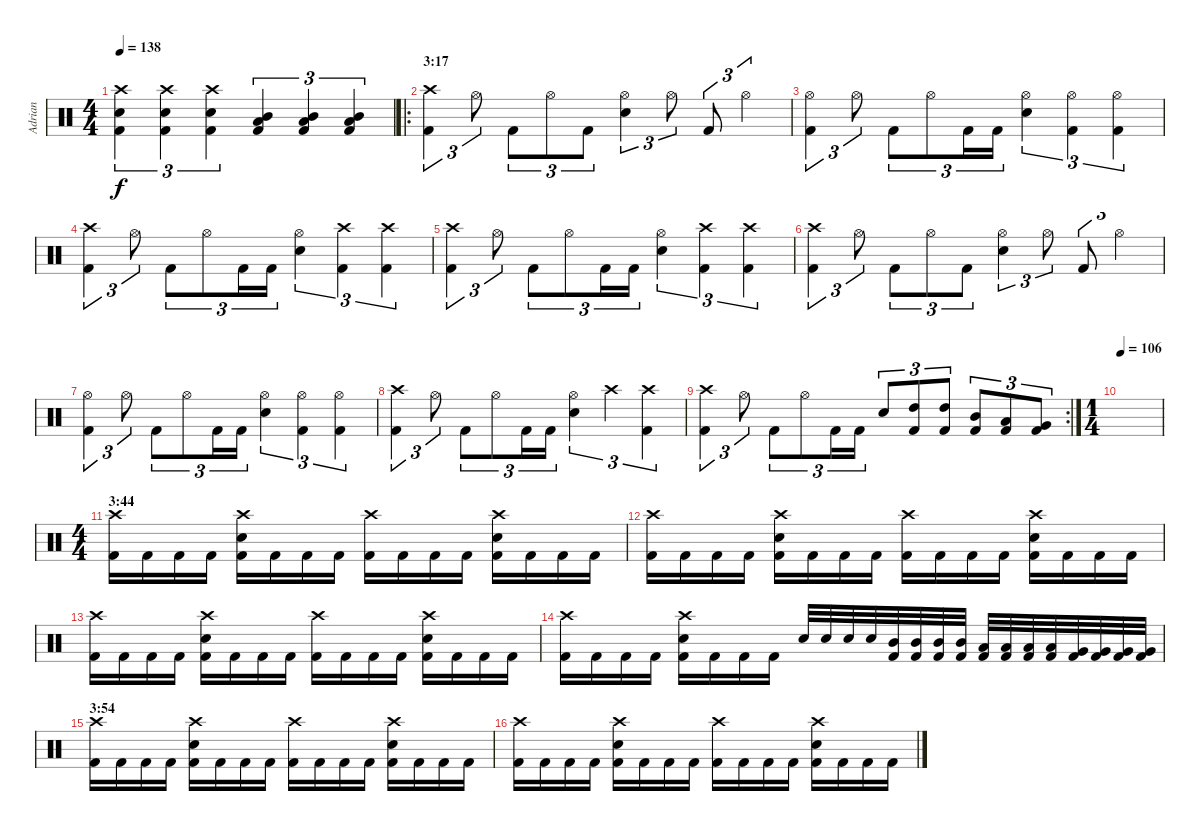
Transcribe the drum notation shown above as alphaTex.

\track ("Adrian" "Adrian") {instrument percussion}
\staff {score}
\articulation defaults
\ts (4 4)
\tempo 138
\clef neutral
\ks c
("Kick (hit) 2" "Snare (hit) 2" "Crash high (hit)").4{tu (3 2) dy f} ("Kick (hit) 2" "Snare (hit) 2" "Crash high (hit)").4{tu (3 2)} ("Kick (hit) 2" "Snare (hit) 2" "Crash high (hit)").4{tu (3 2)} ("Kick (hit) 2" "Low Tom (hit)" "Mid Tom (hit)").4{tu (3 2)} ("Kick (hit) 2" "Low Tom (hit)" "Mid Tom (hit)").4{tu (3 2)} ("Kick (hit) 2" "Low Tom (hit)" "Mid Tom (hit)").4{tu (3 2)} |
\ro
\section ("" "3:17")
("Kick (hit) 2" "Crash high (hit)").4{tu (3 2)} "Hi-Hat (open)".8{tu (3 2)} "Kick (hit) 2".8{tu (3 2)} "Hi-Hat (open)".8{tu (3 2)} "Kick (hit) 2".8{tu (3 2)} ("Snare (hit) 2" "Hi-Hat (open)").4{tu (3 2)} "Hi-Hat (open)".8{tu (3 2)} "Kick (hit) 2".8{tu (3 2)} "Hi-Hat (open)".4{tu (3 2)} |
("Kick (hit) 2" "Hi-Hat (open)").4{tu (3 2)} "Hi-Hat (open)".8{tu (3 2)} "Kick (hit) 2".8{tu (3 2)} "Hi-Hat (open)".8{tu (3 2)} "Kick (hit) 2".16{tu (3 2)} "Kick (hit) 2".16{tu (3 2)} ("Snare (hit) 2" "Hi-Hat (open)").4{tu (3 2)} ("Kick (hit) 2" "Hi-Hat (open)").4{tu (3 2)} ("Kick (hit) 2" "Hi-Hat (open)").4{tu (3 2)} |
("Kick (hit) 2" "Crash high (hit)").4{tu (3 2)} "Hi-Hat (open)".8{tu (3 2)} "Kick (hit) 2".8{tu (3 2)} "Hi-Hat (open)".8{tu (3 2)} "Kick (hit) 2".16{tu (3 2)} "Kick (hit) 2".16{tu (3 2)} ("Snare (hit) 2" "Hi-Hat (open)").4{tu (3 2)} ("Kick (hit) 2" "Crash high (hit)").4{tu (3 2)} ("Kick (hit) 2" "Crash high (hit)").4{tu (3 2)} |
("Kick (hit) 2" "Crash high (hit)").4{tu (3 2)} "Hi-Hat (open)".8{tu (3 2)} "Kick (hit) 2".8{tu (3 2)} "Hi-Hat (open)".8{tu (3 2)} "Kick (hit) 2".16{tu (3 2)} "Kick (hit) 2".16{tu (3 2)} ("Snare (hit) 2" "Hi-Hat (open)").4{tu (3 2)} ("Kick (hit) 2" "Crash high (hit)").4{tu (3 2)} ("Kick (hit) 2" "Crash high (hit)").4{tu (3 2)} |
("Kick (hit) 2" "Crash high (hit)").4{tu (3 2)} "Hi-Hat (open)".8{tu (3 2)} "Kick (hit) 2".8{tu (3 2)} "Hi-Hat (open)".8{tu (3 2)} "Kick (hit) 2".8{tu (3 2)} ("Snare (hit) 2" "Hi-Hat (open)").4{tu (3 2)} "Hi-Hat (open)".8{tu (3 2)} "Kick (hit) 2".8{tu (3 2)} "Hi-Hat (open)".4{tu (3 2)} |
("Kick (hit) 2" "Hi-Hat (open)").4{tu (3 2)} "Hi-Hat (open)".8{tu (3 2)} "Kick (hit) 2".8{tu (3 2)} "Hi-Hat (open)".8{tu (3 2)} "Kick (hit) 2".16{tu (3 2)} "Kick (hit) 2".16{tu (3 2)} ("Snare (hit) 2" "Hi-Hat (open)").4{tu (3 2)} ("Kick (hit) 2" "Hi-Hat (open)").4{tu (3 2)} ("Kick (hit) 2" "Hi-Hat (open)").4{tu (3 2)} |
("Kick (hit) 2" "Crash high (hit)").4{tu (3 2)} "Hi-Hat (open)".8{tu (3 2)} "Kick (hit) 2".8{tu (3 2)} "Hi-Hat (open)".8{tu (3 2)} "Kick (hit) 2".16{tu (3 2)} "Kick (hit) 2".16{tu (3 2)} ("Snare (hit) 2" "Hi-Hat (open)").4{tu (3 2)} "Crash high (hit)".4{tu (3 2)} ("Kick (hit) 2" "Crash high (hit)").4{tu (3 2)} |
\rc 2
("Kick (hit) 2" "Crash high (hit)").4{tu (3 2)} "Hi-Hat (open)".8{tu (3 2)} "Kick (hit) 2".8{tu (3 2)} "Hi-Hat (open)".8{tu (3 2)} "Kick (hit) 2".16{tu (3 2)} "Kick (hit) 2".16{tu (3 2)} "Snare (hit) 2".8{tu (3 2)} ("Kick (hit) 2" "High Tom (hit)").8{tu (3 2)} ("Kick (hit) 2" "High Tom (hit)").8{tu (3 2)} ("Kick (hit) 2" "Mid Tom (hit)").8{tu (3 2)} ("Kick (hit) 2" "Low Tom (hit)").8{tu (3 2)} ("Kick (hit) 2" "Very Low Tom (hit)").8{tu (3 2)} |
\ts (1 4)
\tempo 106
|
\ts (4 4)
\section ("" "3:44")
("Kick (hit) 2" "Crash high (hit)").16 "Kick (hit) 2".16 "Kick (hit) 2".16 "Kick (hit) 2".16 ("Kick (hit) 2" "Snare (hit) 2" "Crash high (hit)").16 "Kick (hit) 2".16 "Kick (hit) 2".16 "Kick (hit) 2".16 ("Kick (hit) 2" "Crash high (hit)").16 "Kick (hit) 2".16 "Kick (hit) 2".16 "Kick (hit) 2".16 ("Kick (hit) 2" "Snare (hit) 2" "Crash high (hit)").16 "Kick (hit) 2".16 "Kick (hit) 2".16 "Kick (hit) 2".16 |
("Kick (hit) 2" "Crash high (hit)").16 "Kick (hit) 2".16 "Kick (hit) 2".16 "Kick (hit) 2".16 ("Kick (hit) 2" "Snare (hit) 2" "Crash high (hit)").16 "Kick (hit) 2".16 "Kick (hit) 2".16 "Kick (hit) 2".16 ("Kick (hit) 2" "Crash high (hit)").16 "Kick (hit) 2".16 "Kick (hit) 2".16 "Kick (hit) 2".16 ("Kick (hit) 2" "Snare (hit) 2" "Crash high (hit)").16 "Kick (hit) 2".16 "Kick (hit) 2".16 "Kick (hit) 2".16 |
("Kick (hit) 2" "Crash high (hit)").16 "Kick (hit) 2".16 "Kick (hit) 2".16 "Kick (hit) 2".16 ("Kick (hit) 2" "Snare (hit) 2" "Crash high (hit)").16 "Kick (hit) 2".16 "Kick (hit) 2".16 "Kick (hit) 2".16 ("Kick (hit) 2" "Crash high (hit)").16 "Kick (hit) 2".16 "Kick (hit) 2".16 "Kick (hit) 2".16 ("Kick (hit) 2" "Snare (hit) 2" "Crash high (hit)").16 "Kick (hit) 2".16 "Kick (hit) 2".16 "Kick (hit) 2".16 |
("Kick (hit) 2" "Crash high (hit)").16 "Kick (hit) 2".16 "Kick (hit) 2".16 "Kick (hit) 2".16 ("Kick (hit) 2" "Snare (hit) 2" "Crash high (hit)").16 "Kick (hit) 2".16 "Kick (hit) 2".16 "Kick (hit) 2".16 "Snare (hit) 2".32 "Snare (hit) 2".32 "Snare (hit) 2".32 "Snare (hit) 2".32 ("Kick (hit) 2" "Mid Tom (hit)").32 ("Kick (hit) 2" "Mid Tom (hit)").32 ("Kick (hit) 2" "Mid Tom (hit)").32 ("Kick (hit) 2" "Mid Tom (hit)").32 ("Kick (hit) 2" "Low Tom (hit)").32 ("Kick (hit) 2" "Low Tom (hit)").32 ("Kick (hit) 2" "Low Tom (hit)").32 ("Kick (hit) 2" "Low Tom (hit)").32 ("Kick (hit) 2" "Very Low Tom (hit)").32 ("Kick (hit) 2" "Very Low Tom (hit)").32 ("Kick (hit) 2" "Very Low Tom (hit)").32 ("Kick (hit) 2" "Very Low Tom (hit)").32 |
\section ("" "3:54")
("Kick (hit) 2" "Crash high (hit)").16 "Kick (hit) 2".16 "Kick (hit) 2".16 "Kick (hit) 2".16 ("Kick (hit) 2" "Snare (hit) 2" "Crash high (hit)").16 "Kick (hit) 2".16 "Kick (hit) 2".16 "Kick (hit) 2".16 ("Kick (hit) 2" "Crash high (hit)").16 "Kick (hit) 2".16 "Kick (hit) 2".16 "Kick (hit) 2".16 ("Kick (hit) 2" "Snare (hit) 2" "Crash high (hit)").16 "Kick (hit) 2".16 "Kick (hit) 2".16 "Kick (hit) 2".16 |
("Kick (hit) 2" "Crash high (hit)").16 "Kick (hit) 2".16 "Kick (hit) 2".16 "Kick (hit) 2".16 ("Kick (hit) 2" "Snare (hit) 2" "Crash high (hit)").16 "Kick (hit) 2".16 "Kick (hit) 2".16 "Kick (hit) 2".16 ("Kick (hit) 2" "Crash high (hit)").16 "Kick (hit) 2".16 "Kick (hit) 2".16 "Kick (hit) 2".16 ("Kick (hit) 2" "Snare (hit) 2" "Crash high (hit)").16 "Kick (hit) 2".16 "Kick (hit) 2".16 "Kick (hit) 2".16
